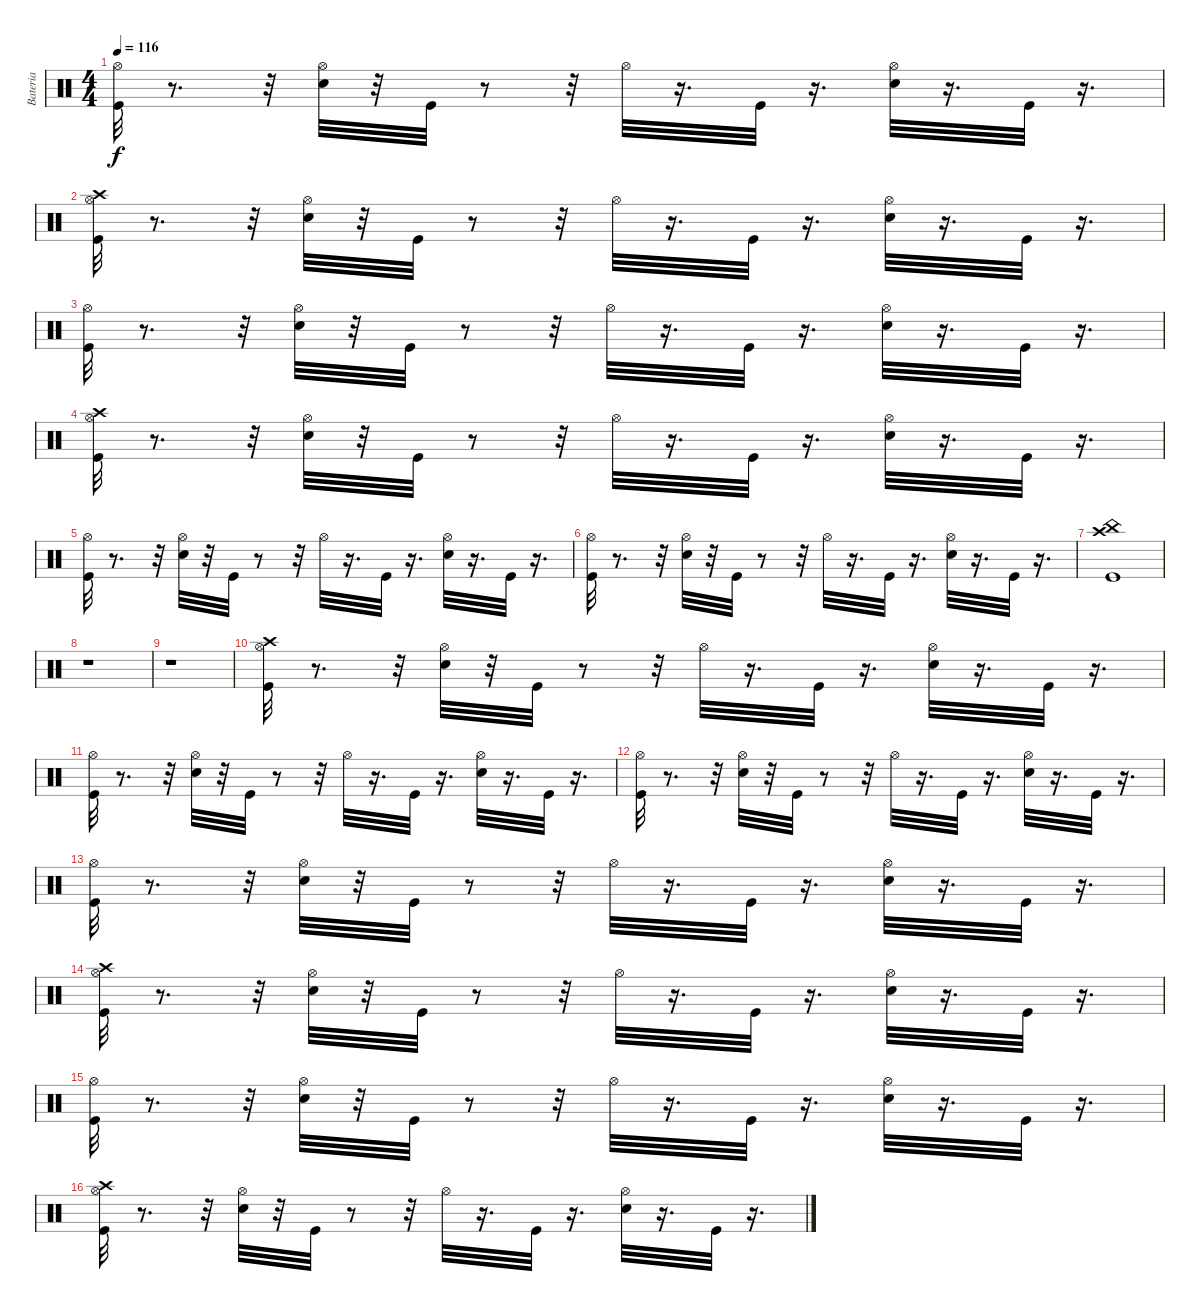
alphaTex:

\track ("Bateria" "Bateria") {instrument percussion}
\staff {score}
\articulation defaults
\ts (4 4)
\tempo 116
\clef neutral
\ks c
("Hi-Hat (open)" "Kick (hit)").32{dy f} r.8{d} r.32 ("Hi-Hat (open)" "Electric Snare (hit)").32 r.32 "Kick (hit)".32 r.8 r.32 "Hi-Hat (open)".32 r.16{d} "Kick (hit)".32 r.16{d} ("Hi-Hat (open)" "Electric Snare (hit)").32 r.16{d} "Kick (hit)".32 r.16{d} |
("Hi-Hat (open)" "Kick (hit)" "Crash high (hit)").32 r.8{d} r.32 ("Hi-Hat (open)" "Electric Snare (hit)").32 r.32 "Kick (hit)".32 r.8 r.32 "Hi-Hat (open)".32 r.16{d} "Kick (hit)".32 r.16{d} ("Hi-Hat (open)" "Electric Snare (hit)").32 r.16{d} "Kick (hit)".32 r.16{d} |
("Hi-Hat (open)" "Kick (hit)").32 r.8{d} r.32 ("Hi-Hat (open)" "Electric Snare (hit)").32 r.32 "Kick (hit)".32 r.8 r.32 "Hi-Hat (open)".32 r.16{d} "Kick (hit)".32 r.16{d} ("Hi-Hat (open)" "Electric Snare (hit)").32 r.16{d} "Kick (hit)".32 r.16{d} |
("Hi-Hat (open)" "Kick (hit)" "Crash high (hit)").32 r.8{d} r.32 ("Hi-Hat (open)" "Electric Snare (hit)").32 r.32 "Kick (hit)".32 r.8 r.32 "Hi-Hat (open)".32 r.16{d} "Kick (hit)".32 r.16{d} ("Hi-Hat (open)" "Electric Snare (hit)").32 r.16{d} "Kick (hit)".32 r.16{d} |
("Hi-Hat (open)" "Kick (hit)").32 r.8{d} r.32 ("Hi-Hat (open)" "Electric Snare (hit)").32 r.32 "Kick (hit)".32 r.8 r.32 "Hi-Hat (open)".32 r.16{d} "Kick (hit)".32 r.16{d} ("Hi-Hat (open)" "Electric Snare (hit)").32 r.16{d} "Kick (hit)".32 r.16{d} |
("Hi-Hat (open)" "Kick (hit)").32 r.8{d} r.32 ("Hi-Hat (open)" "Electric Snare (hit)").32 r.32 "Kick (hit)".32 r.8 r.32 "Hi-Hat (open)".32 r.16{d} "Kick (hit)".32 r.16{d} ("Hi-Hat (open)" "Electric Snare (hit)").32 r.16{d} "Kick (hit)".32 r.16{d} |
("Kick (hit)" "Crash high (hit)" "China (hit)").1 |
r.1 |
r.1 |
("Hi-Hat (open)" "Kick (hit)" "Crash high (hit)").32 r.8{d} r.32 ("Hi-Hat (open)" "Electric Snare (hit)").32 r.32 "Kick (hit)".32 r.8 r.32 "Hi-Hat (open)".32 r.16{d} "Kick (hit)".32 r.16{d} ("Hi-Hat (open)" "Electric Snare (hit)").32 r.16{d} "Kick (hit)".32 r.16{d} |
("Hi-Hat (open)" "Kick (hit)").32 r.8{d} r.32 ("Hi-Hat (open)" "Electric Snare (hit)").32 r.32 "Kick (hit)".32 r.8 r.32 "Hi-Hat (open)".32 r.16{d} "Kick (hit)".32 r.16{d} ("Hi-Hat (open)" "Electric Snare (hit)").32 r.16{d} "Kick (hit)".32 r.16{d} |
("Hi-Hat (open)" "Kick (hit)").32 r.8{d} r.32 ("Hi-Hat (open)" "Electric Snare (hit)").32 r.32 "Kick (hit)".32 r.8 r.32 "Hi-Hat (open)".32 r.16{d} "Kick (hit)".32 r.16{d} ("Hi-Hat (open)" "Electric Snare (hit)").32 r.16{d} "Kick (hit)".32 r.16{d} |
("Hi-Hat (open)" "Kick (hit)").32 r.8{d} r.32 ("Hi-Hat (open)" "Electric Snare (hit)").32 r.32 "Kick (hit)".32 r.8 r.32 "Hi-Hat (open)".32 r.16{d} "Kick (hit)".32 r.16{d} ("Hi-Hat (open)" "Electric Snare (hit)").32 r.16{d} "Kick (hit)".32 r.16{d} |
("Hi-Hat (open)" "Kick (hit)" "Crash high (hit)").32 r.8{d} r.32 ("Hi-Hat (open)" "Electric Snare (hit)").32 r.32 "Kick (hit)".32 r.8 r.32 "Hi-Hat (open)".32 r.16{d} "Kick (hit)".32 r.16{d} ("Hi-Hat (open)" "Electric Snare (hit)").32 r.16{d} "Kick (hit)".32 r.16{d} |
("Hi-Hat (open)" "Kick (hit)").32 r.8{d} r.32 ("Hi-Hat (open)" "Electric Snare (hit)").32 r.32 "Kick (hit)".32 r.8 r.32 "Hi-Hat (open)".32 r.16{d} "Kick (hit)".32 r.16{d} ("Hi-Hat (open)" "Electric Snare (hit)").32 r.16{d} "Kick (hit)".32 r.16{d} |
("Hi-Hat (open)" "Kick (hit)" "Crash high (hit)").32 r.8{d} r.32 ("Hi-Hat (open)" "Electric Snare (hit)").32 r.32 "Kick (hit)".32 r.8 r.32 "Hi-Hat (open)".32 r.16{d} "Kick (hit)".32 r.16{d} ("Hi-Hat (open)" "Electric Snare (hit)").32 r.16{d} "Kick (hit)".32 r.16{d}
